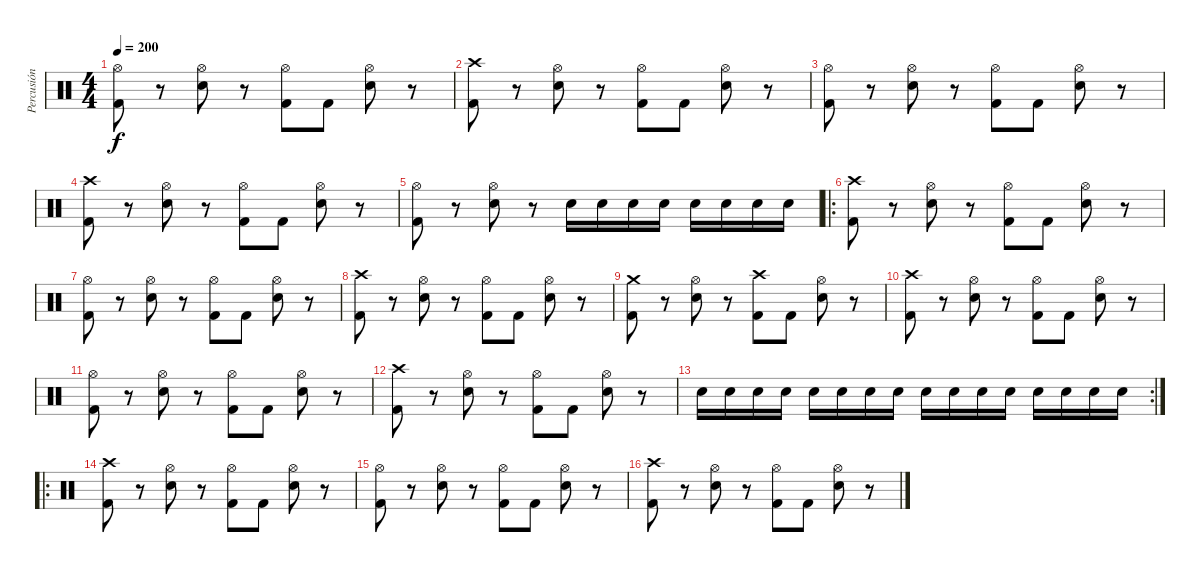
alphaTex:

\track ("Percusión" "Percusión") {instrument percussion}
\staff {score}
\articulation defaults
\ts (4 4)
\tempo 200
\clef neutral
\ks c
("Hi-Hat (open)" "Kick (hit) 2").8{dy f} r.8 ("Hi-Hat (open)" "Electric Snare (hit)").8 r.8 ("Hi-Hat (open)" "Kick (hit) 2").8 "Kick (hit) 2".8 ("Hi-Hat (open)" "Electric Snare (hit)").8 r.8 |
("Crash high (hit)" "Kick (hit) 2").8 r.8 ("Hi-Hat (open)" "Electric Snare (hit)").8 r.8 ("Hi-Hat (open)" "Kick (hit) 2").8 "Kick (hit) 2".8 ("Hi-Hat (open)" "Electric Snare (hit)").8 r.8 |
("Hi-Hat (open)" "Kick (hit) 2").8 r.8 ("Hi-Hat (open)" "Electric Snare (hit)").8 r.8 ("Hi-Hat (open)" "Kick (hit) 2").8 "Kick (hit) 2".8 ("Hi-Hat (open)" "Electric Snare (hit)").8 r.8 |
("Crash high (hit)" "Kick (hit) 2").8 r.8 ("Hi-Hat (open)" "Electric Snare (hit)").8 r.8 ("Hi-Hat (open)" "Kick (hit) 2").8 "Kick (hit) 2".8 ("Hi-Hat (open)" "Electric Snare (hit)").8 r.8 |
("Hi-Hat (open)" "Kick (hit) 2").8 r.8 ("Hi-Hat (open)" "Electric Snare (hit)").8 r.8 "Electric Snare (hit)".16 "Electric Snare (hit)".16 "Electric Snare (hit)".16 "Electric Snare (hit)".16 "Electric Snare (hit)".16 "Electric Snare (hit)".16 "Electric Snare (hit)".16 "Electric Snare (hit)".16 |
\ro
("Crash high (hit)" "Kick (hit) 2").8 r.8 ("Hi-Hat (open)" "Electric Snare (hit)").8 r.8 ("Hi-Hat (open)" "Kick (hit) 2").8 "Kick (hit) 2".8 ("Hi-Hat (open)" "Electric Snare (hit)").8 r.8 |
("Hi-Hat (open)" "Kick (hit) 2").8 r.8 ("Hi-Hat (open)" "Electric Snare (hit)").8 r.8 ("Hi-Hat (open)" "Kick (hit) 2").8 "Kick (hit) 2".8 ("Hi-Hat (open)" "Electric Snare (hit)").8 r.8 |
("Crash high (hit)" "Kick (hit) 2").8 r.8 ("Hi-Hat (open)" "Electric Snare (hit)").8 r.8 ("Hi-Hat (open)" "Kick (hit) 2").8 "Kick (hit) 2".8 ("Hi-Hat (open)" "Electric Snare (hit)").8 r.8 |
("Crash medium (hit)" "Kick (hit) 2").8 r.8 ("Hi-Hat (open)" "Electric Snare (hit)").8 r.8 ("Crash high (hit)" "Kick (hit) 2").8 "Kick (hit) 2".8 ("Hi-Hat (open)" "Electric Snare (hit)").8 r.8 |
("Crash high (hit)" "Kick (hit) 2").8 r.8 ("Hi-Hat (open)" "Electric Snare (hit)").8 r.8 ("Hi-Hat (open)" "Kick (hit) 2").8 "Kick (hit) 2".8 ("Hi-Hat (open)" "Electric Snare (hit)").8 r.8 |
("Hi-Hat (open)" "Kick (hit) 2").8 r.8 ("Hi-Hat (open)" "Electric Snare (hit)").8 r.8 ("Hi-Hat (open)" "Kick (hit) 2").8 "Kick (hit) 2".8 ("Hi-Hat (open)" "Electric Snare (hit)").8 r.8 |
("Crash high (hit)" "Kick (hit) 2").8 r.8 ("Hi-Hat (open)" "Electric Snare (hit)").8 r.8 ("Hi-Hat (open)" "Kick (hit) 2").8 "Kick (hit) 2".8 ("Hi-Hat (open)" "Electric Snare (hit)").8 r.8 |
\rc 2 "Electric Snare (hit)".16 "Electric Snare (hit)".16 "Electric Snare (hit)".16 "Electric Snare (hit)".16 "Electric Snare (hit)".16 "Electric Snare (hit)".16 "Electric Snare (hit)".16 "Electric Snare (hit)".16 "Electric Snare (hit)".16 "Electric Snare (hit)".16 "Electric Snare (hit)".16 "Electric Snare (hit)".16 "Electric Snare (hit)".16 "Electric Snare (hit)".16 "Electric Snare (hit)".16 "Electric Snare (hit)".16
|
\ro
("Crash high (hit)" "Kick (hit) 2").8 r.8 ("Hi-Hat (open)" "Electric Snare (hit)").8 r.8 ("Hi-Hat (open)" "Kick (hit) 2").8 "Kick (hit) 2".8 ("Hi-Hat (open)" "Electric Snare (hit)").8 r.8 |
("Hi-Hat (open)" "Kick (hit) 2").8 r.8 ("Hi-Hat (open)" "Electric Snare (hit)").8 r.8 ("Hi-Hat (open)" "Kick (hit) 2").8 "Kick (hit) 2".8 ("Hi-Hat (open)" "Electric Snare (hit)").8 r.8 |
("Crash high (hit)" "Kick (hit) 2").8 r.8 ("Hi-Hat (open)" "Electric Snare (hit)").8 r.8 ("Hi-Hat (open)" "Kick (hit) 2").8 "Kick (hit) 2".8 ("Hi-Hat (open)" "Electric Snare (hit)").8 r.8
